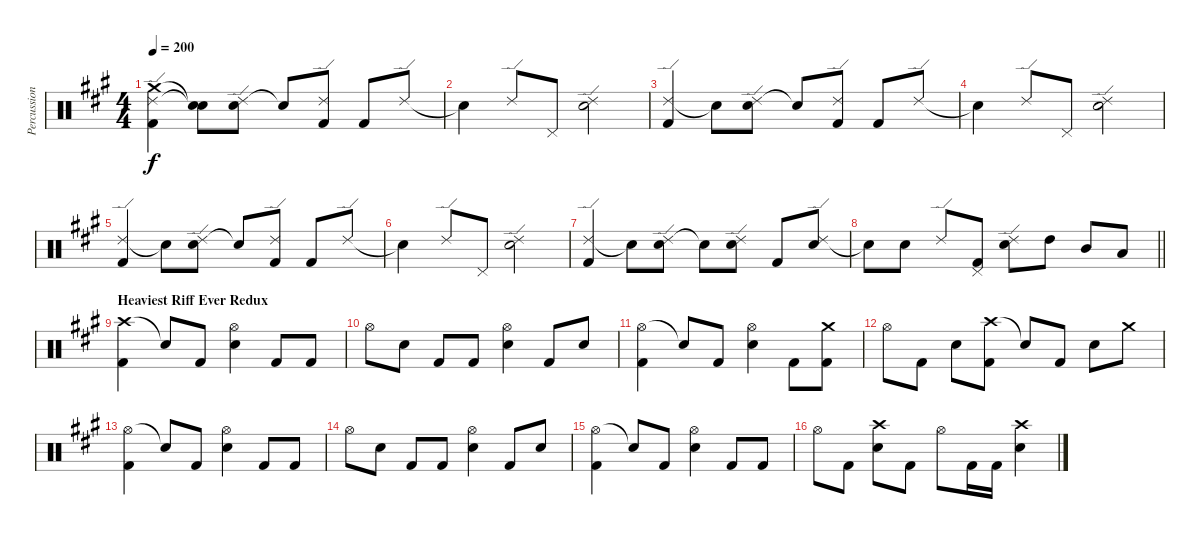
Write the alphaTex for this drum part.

\track ("Percussion" "Percussion") {instrument percussion}
\staff {score}
\articulation defaults
\ts (4 4)
\tempo 200
\clef neutral
\ks f#minor
("Crash medium (hit)" "Ride (edge) 2" "Kick (hit) 2").4{dy f} ("Snare (hit)"{t} "Snare (hit)"{t}).8 ("Ride (edge) 2" "Electric Snare (hit)").8 "Snare (hit)"{t}.8 ("Ride (edge) 2" "Kick (hit) 2").8 "Kick (hit) 2".8 "Ride (edge) 2".8 |
"Snare (hit)"{t}.4 "Ride (edge) 2".8 "Pedal Hi-Hat (hit)".8 ("Ride (edge) 2" "Electric Snare (hit)").2 |
("Ride (edge) 2" "Kick (hit) 2").4 "Snare (hit)"{t}.8 ("Ride (edge) 2" "Electric Snare (hit)").8 "Snare (hit)"{t}.8 ("Ride (edge) 2" "Kick (hit) 2").8 "Kick (hit) 2".8 "Ride (edge) 2".8 |
"Snare (hit)"{t}.4 "Ride (edge) 2".8 "Pedal Hi-Hat (hit)".8 ("Ride (edge) 2" "Electric Snare (hit)").2 |
("Ride (edge) 2" "Kick (hit) 2").4 "Snare (hit)"{t}.8 ("Ride (edge) 2" "Electric Snare (hit)").8 "Snare (hit)"{t}.8 ("Ride (edge) 2" "Kick (hit) 2").8 "Kick (hit) 2".8 "Ride (edge) 2".8 |
"Snare (hit)"{t}.4 "Ride (edge) 2".8 "Pedal Hi-Hat (hit)".8 ("Ride (edge) 2" "Electric Snare (hit)").2 |
("Ride (edge) 2" "Kick (hit) 2").4 "Snare (hit)"{t}.8 ("Ride (edge) 2" "Electric Snare (hit)").8 "Snare (hit)"{t}.8 ("Ride (edge) 2" "Electric Snare (hit)").8 "Kick (hit) 2".8 ("Ride (edge) 2" "Electric Snare (hit)").8 |
\barLineRight lightlight "Snare (hit)"{t}.8 "Electric Snare (hit)".8 "Ride (edge) 2".8
("Pedal Hi-Hat (hit)" "Kick (hit) 2").8 ("Ride (edge) 2" "Electric Snare (hit)").8 "High Tom (hit)".8 "Mid Tom (hit)".8 "Low Tom (hit)".8 |
\section ("" "Heaviest Riff Ever Redux")
("Crash high (hit)" "Kick (hit) 2").4 "Snare (hit)"{t}.8 "Kick (hit) 2".8 ("Hi-Hat (open)" "Electric Snare (hit)").4 "Kick (hit) 2".8 "Kick (hit) 2".8 |
"Hi-Hat (open)".8 "Electric Snare (hit)".8 "Kick (hit) 2".8 "Kick (hit) 2".8 ("Hi-Hat (open)" "Electric Snare (hit)").4 "Kick (hit) 2".8 "Electric Snare (hit)".8 |
("Hi-Hat (open)" "Kick (hit) 2").4 "Snare (hit)"{t}.8 "Kick (hit) 2".8 ("Hi-Hat (open)" "Electric Snare (hit)").4 "Kick (hit) 2".8 ("Crash medium (hit)" "Kick (hit) 2").8 |
"Hi-Hat (open)".8 "Kick (hit) 2".8 "Electric Snare (hit)".8 ("Crash high (hit)" "Kick (hit) 2").8 "Snare (hit)"{t}.8 "Kick (hit) 2".8 "Electric Snare (hit)".8 "Crash medium (hit)".8 |
("Hi-Hat (open)" "Kick (hit) 2").4 "Snare (hit)"{t}.8 "Kick (hit) 2".8 ("Hi-Hat (open)" "Electric Snare (hit)").4 "Kick (hit) 2".8 "Kick (hit) 2".8 |
"Hi-Hat (open)".8 "Electric Snare (hit)".8 "Kick (hit) 2".8 "Kick (hit) 2".8 ("Hi-Hat (open)" "Electric Snare (hit)").4 "Kick (hit) 2".8 "Electric Snare (hit)".8 |
("Hi-Hat (open)" "Kick (hit) 2").4 "Snare (hit)"{t}.8 "Kick (hit) 2".8 ("Hi-Hat (open)" "Electric Snare (hit)").4 "Kick (hit) 2".8 "Kick (hit) 2".8 |
"Hi-Hat (open)".8 "Kick (hit) 2".8 ("Crash high (hit)" "Electric Snare (hit)").8 "Kick (hit) 2".8 "Hi-Hat (open)".8 "Kick (hit) 2".16 "Kick (hit) 2".16 ("Crash high (hit)" "Electric Snare (hit)").4
